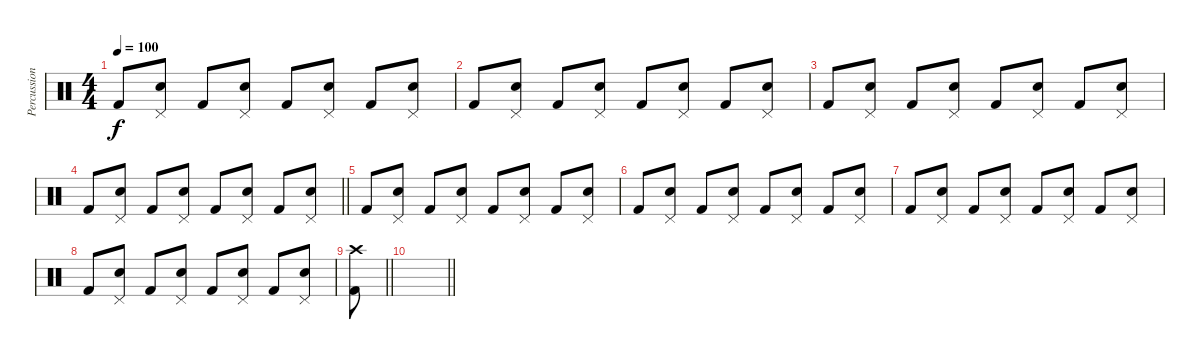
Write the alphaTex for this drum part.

\track ("Percussion" "Percussion") {instrument percussion}
\staff {score}
\articulation defaults
\ts (4 4)
\tempo 100
\clef neutral
\ks c "Kick (hit) 2".8{dy f}
("Pedal Hi-Hat (hit)" "Snare (hit) 2").8 "Kick (hit) 2".8 ("Pedal Hi-Hat (hit)" "Snare (hit) 2").8 "Kick (hit) 2".8 ("Pedal Hi-Hat (hit)" "Snare (hit) 2").8 "Kick (hit) 2".8 ("Pedal Hi-Hat (hit)" "Snare (hit) 2").8 |
"Kick (hit) 2".8 ("Pedal Hi-Hat (hit)" "Snare (hit) 2").8 "Kick (hit) 2".8 ("Pedal Hi-Hat (hit)" "Snare (hit) 2").8 "Kick (hit) 2".8 ("Pedal Hi-Hat (hit)" "Snare (hit) 2").8 "Kick (hit) 2".8 ("Pedal Hi-Hat (hit)" "Snare (hit) 2").8 |
"Kick (hit) 2".8 ("Pedal Hi-Hat (hit)" "Snare (hit) 2").8 "Kick (hit) 2".8 ("Pedal Hi-Hat (hit)" "Snare (hit) 2").8 "Kick (hit) 2".8 ("Pedal Hi-Hat (hit)" "Snare (hit) 2").8 "Kick (hit) 2".8 ("Pedal Hi-Hat (hit)" "Snare (hit) 2").8 |
\barLineRight lightlight "Kick (hit) 2".8
("Pedal Hi-Hat (hit)" "Snare (hit) 2").8 "Kick (hit) 2".8 ("Pedal Hi-Hat (hit)" "Snare (hit) 2").8 "Kick (hit) 2".8 ("Pedal Hi-Hat (hit)" "Snare (hit) 2").8 "Kick (hit) 2".8 ("Pedal Hi-Hat (hit)" "Snare (hit) 2").8 |
"Kick (hit) 2".8 ("Pedal Hi-Hat (hit)" "Snare (hit) 2").8 "Kick (hit) 2".8 ("Pedal Hi-Hat (hit)" "Snare (hit) 2").8 "Kick (hit) 2".8 ("Pedal Hi-Hat (hit)" "Snare (hit) 2").8 "Kick (hit) 2".8 ("Pedal Hi-Hat (hit)" "Snare (hit) 2").8 |
"Kick (hit) 2".8 ("Pedal Hi-Hat (hit)" "Snare (hit) 2").8 "Kick (hit) 2".8 ("Pedal Hi-Hat (hit)" "Snare (hit) 2").8 "Kick (hit) 2".8 ("Pedal Hi-Hat (hit)" "Snare (hit) 2").8 "Kick (hit) 2".8 ("Pedal Hi-Hat (hit)" "Snare (hit) 2").8 |
"Kick (hit) 2".8 ("Pedal Hi-Hat (hit)" "Snare (hit) 2").8 "Kick (hit) 2".8 ("Pedal Hi-Hat (hit)" "Snare (hit) 2").8 "Kick (hit) 2".8 ("Pedal Hi-Hat (hit)" "Snare (hit) 2").8 "Kick (hit) 2".8 ("Pedal Hi-Hat (hit)" "Snare (hit) 2").8 |
"Kick (hit) 2".8 ("Pedal Hi-Hat (hit)" "Snare (hit) 2").8 "Kick (hit) 2".8 ("Pedal Hi-Hat (hit)" "Snare (hit) 2").8 "Kick (hit) 2".8 ("Pedal Hi-Hat (hit)" "Snare (hit) 2").8 "Kick (hit) 2".8 ("Pedal Hi-Hat (hit)" "Snare (hit) 2").8 |
\barLineRight lightlight
("Crash high (hit)" "Kick (hit) 2").8 |
\barLineRight lightlight
